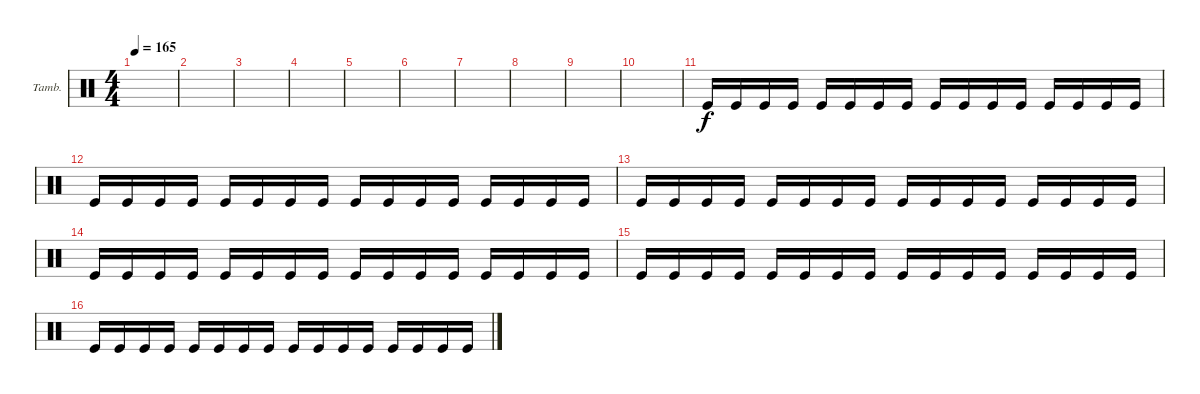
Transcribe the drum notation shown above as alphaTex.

\defaultSystemsLayout 4
\bracketExtendMode groupsimilarinstruments
\firstSystemTrackNameOrientation horizontal
\otherSystemsTrackNameOrientation horizontal
\track ("Tambourine" "Tamb.") {instrument percussion}
\staff {score}
\articulation defaults
\ts (4 4)
\tempo 165
\clef neutral
\scale
0.333333
\ks c
|
\scale
0.333333 |
\scale
0.333333 |
\scale
0.333333 |
\scale
0.333333 |
\scale
0.333333 |
\scale
0.333333 |
\scale
0.333333 |
\scale
0.333333 |
\scale
0.333333 |
\scale
0.333333 "Kick (hit)".16 "Kick (hit)".16 "Kick (hit)".16 "Kick (hit)".16 "Kick (hit)".16 "Kick (hit)".16 "Kick (hit)".16 "Kick (hit)".16 "Kick (hit)".16 "Kick (hit)".16 "Kick (hit)".16 "Kick (hit)".16 "Kick (hit)".16 "Kick (hit)".16 "Kick (hit)".16 "Kick (hit)".16 |
\scale
0.333333 "Kick (hit)".16 "Kick (hit)".16 "Kick (hit)".16 "Kick (hit)".16 "Kick (hit)".16 "Kick (hit)".16 "Kick (hit)".16 "Kick (hit)".16 "Kick (hit)".16 "Kick (hit)".16 "Kick (hit)".16 "Kick (hit)".16 "Kick (hit)".16 "Kick (hit)".16 "Kick (hit)".16 "Kick (hit)".16 |
\scale
0.333333 "Kick (hit)".16 "Kick (hit)".16 "Kick (hit)".16 "Kick (hit)".16 "Kick (hit)".16 "Kick (hit)".16 "Kick (hit)".16 "Kick (hit)".16 "Kick (hit)".16 "Kick (hit)".16 "Kick (hit)".16 "Kick (hit)".16 "Kick (hit)".16 "Kick (hit)".16 "Kick (hit)".16 "Kick (hit)".16 |
\scale
0.333333 "Kick (hit)".16 "Kick (hit)".16 "Kick (hit)".16 "Kick (hit)".16 "Kick (hit)".16 "Kick (hit)".16 "Kick (hit)".16 "Kick (hit)".16 "Kick (hit)".16 "Kick (hit)".16 "Kick (hit)".16 "Kick (hit)".16 "Kick (hit)".16 "Kick (hit)".16 "Kick (hit)".16 "Kick (hit)".16 |
\scale
0.333333 "Kick (hit)".16 "Kick (hit)".16 "Kick (hit)".16 "Kick (hit)".16 "Kick (hit)".16 "Kick (hit)".16 "Kick (hit)".16 "Kick (hit)".16 "Kick (hit)".16 "Kick (hit)".16 "Kick (hit)".16 "Kick (hit)".16 "Kick (hit)".16 "Kick (hit)".16 "Kick (hit)".16 "Kick (hit)".16 |
\scale
0.333333 "Kick (hit)".16 "Kick (hit)".16 "Kick (hit)".16 "Kick (hit)".16 "Kick (hit)".16 "Kick (hit)".16 "Kick (hit)".16 "Kick (hit)".16 "Kick (hit)".16 "Kick (hit)".16 "Kick (hit)".16 "Kick (hit)".16 "Kick (hit)".16 "Kick (hit)".16 "Kick (hit)".16 "Kick (hit)".16
